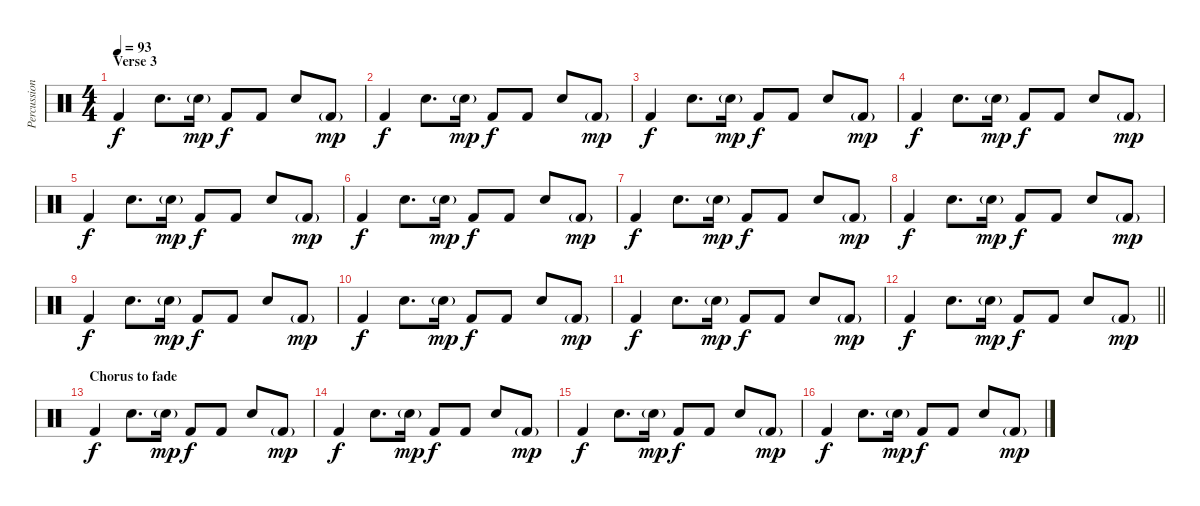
\track ("Percussion" "Percussion") {instrument percussion}
\staff {score}
\articulation defaults
\ts (4 4)
\section ("" "Verse 3")
\tempo 93
\clef neutral
\ks c "Kick (hit) 2".4{dy f} "Snare (hit) 2".8{d} "Snare (hit) 2"{g}.16{dy mp} "Kick (hit) 2".8{dy f} "Kick (hit) 2".8 "Snare (hit) 2".8 "Kick (hit) 2"{g}.8{dy mp}
|
"Kick (hit) 2".4{dy f} "Snare (hit) 2".8{d} "Snare (hit) 2"{g}.16{dy mp} "Kick (hit) 2".8{dy f} "Kick (hit) 2".8 "Snare (hit) 2".8 "Kick (hit) 2"{g}.8{dy mp} |
"Kick (hit) 2".4{dy f} "Snare (hit) 2".8{d} "Snare (hit) 2"{g}.16{dy mp} "Kick (hit) 2".8{dy f} "Kick (hit) 2".8 "Snare (hit) 2".8 "Kick (hit) 2"{g}.8{dy mp} |
"Kick (hit) 2".4{dy f} "Snare (hit) 2".8{d} "Snare (hit) 2"{g}.16{dy mp} "Kick (hit) 2".8{dy f} "Kick (hit) 2".8 "Snare (hit) 2".8 "Kick (hit) 2"{g}.8{dy mp} |
"Kick (hit) 2".4{dy f} "Snare (hit) 2".8{d} "Snare (hit) 2"{g}.16{dy mp} "Kick (hit) 2".8{dy f} "Kick (hit) 2".8 "Snare (hit) 2".8 "Kick (hit) 2"{g}.8{dy mp} |
"Kick (hit) 2".4{dy f} "Snare (hit) 2".8{d} "Snare (hit) 2"{g}.16{dy mp} "Kick (hit) 2".8{dy f} "Kick (hit) 2".8 "Snare (hit) 2".8 "Kick (hit) 2"{g}.8{dy mp} |
"Kick (hit) 2".4{dy f} "Snare (hit) 2".8{d} "Snare (hit) 2"{g}.16{dy mp} "Kick (hit) 2".8{dy f} "Kick (hit) 2".8 "Snare (hit) 2".8 "Kick (hit) 2"{g}.8{dy mp} |
"Kick (hit) 2".4{dy f} "Snare (hit) 2".8{d} "Snare (hit) 2"{g}.16{dy mp} "Kick (hit) 2".8{dy f} "Kick (hit) 2".8 "Snare (hit) 2".8 "Kick (hit) 2"{g}.8{dy mp} |
"Kick (hit) 2".4{dy f} "Snare (hit) 2".8{d} "Snare (hit) 2"{g}.16{dy mp} "Kick (hit) 2".8{dy f} "Kick (hit) 2".8 "Snare (hit) 2".8 "Kick (hit) 2"{g}.8{dy mp} |
"Kick (hit) 2".4{dy f} "Snare (hit) 2".8{d} "Snare (hit) 2"{g}.16{dy mp} "Kick (hit) 2".8{dy f} "Kick (hit) 2".8 "Snare (hit) 2".8 "Kick (hit) 2"{g}.8{dy mp} |
"Kick (hit) 2".4{dy f} "Snare (hit) 2".8{d} "Snare (hit) 2"{g}.16{dy mp} "Kick (hit) 2".8{dy f} "Kick (hit) 2".8 "Snare (hit) 2".8 "Kick (hit) 2"{g}.8{dy mp} |
\barLineRight lightlight "Kick (hit) 2".4{dy f} "Snare (hit) 2".8{d} "Snare (hit) 2"{g}.16{dy mp} "Kick (hit) 2".8{dy f} "Kick (hit) 2".8 "Snare (hit) 2".8 "Kick (hit) 2"{g}.8{dy mp}
|
\section ("" "Chorus to fade")
"Kick (hit) 2".4{dy f} "Snare (hit) 2".8{d} "Snare (hit) 2"{g}.16{dy mp} "Kick (hit) 2".8{dy f} "Kick (hit) 2".8 "Snare (hit) 2".8 "Kick (hit) 2"{g}.8{dy mp} |
"Kick (hit) 2".4{dy f} "Snare (hit) 2".8{d} "Snare (hit) 2"{g}.16{dy mp} "Kick (hit) 2".8{dy f} "Kick (hit) 2".8 "Snare (hit) 2".8 "Kick (hit) 2"{g}.8{dy mp} |
"Kick (hit) 2".4{dy f} "Snare (hit) 2".8{d} "Snare (hit) 2"{g}.16{dy mp} "Kick (hit) 2".8{dy f} "Kick (hit) 2".8 "Snare (hit) 2".8 "Kick (hit) 2"{g}.8{dy mp} |
"Kick (hit) 2".4{dy f} "Snare (hit) 2".8{d} "Snare (hit) 2"{g}.16{dy mp} "Kick (hit) 2".8{dy f} "Kick (hit) 2".8 "Snare (hit) 2".8 "Kick (hit) 2"{g}.8{dy mp}
